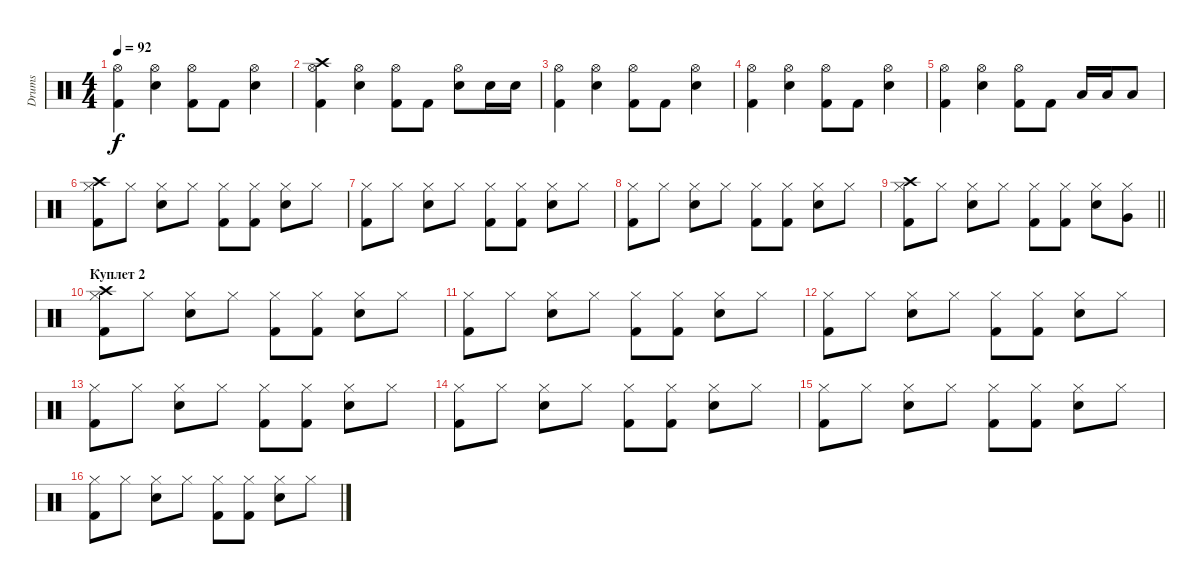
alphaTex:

\track ("Drums" "Drums") {instrument percussion}
\staff {score}
\articulation defaults
\ts (4 4)
\tempo 92
\clef neutral
\ks c
("Kick (hit) 2" "Hi-Hat (open)").4{dy f} ("Electric Snare (hit)" "Hi-Hat (open)").4 ("Kick (hit) 2" "Hi-Hat (open)").8 "Kick (hit) 2".8 ("Electric Snare (hit)" "Hi-Hat (open)").4 |
("Kick (hit) 2" "Hi-Hat (open)" "Crash high (hit)").4 ("Electric Snare (hit)" "Hi-Hat (open)").4 ("Kick (hit) 2" "Hi-Hat (open)").8 "Kick (hit) 2".8 ("Electric Snare (hit)" "Hi-Hat (open)").8 "Electric Snare (hit)".16 "Electric Snare (hit)".16 |
("Kick (hit) 2" "Hi-Hat (open)").4 ("Electric Snare (hit)" "Hi-Hat (open)").4 ("Kick (hit) 2" "Hi-Hat (open)").8 "Kick (hit) 2".8 ("Electric Snare (hit)" "Hi-Hat (open)").4 |
("Kick (hit) 2" "Hi-Hat (open)").4 ("Electric Snare (hit)" "Hi-Hat (open)").4 ("Kick (hit) 2" "Hi-Hat (open)").8 "Kick (hit) 2".8 ("Electric Snare (hit)" "Hi-Hat (open)").4 |
("Kick (hit) 2" "Hi-Hat (open)").4 ("Electric Snare (hit)" "Hi-Hat (open)").4 ("Kick (hit) 2" "Hi-Hat (open)").8 "Kick (hit) 2".8 "Low Floor Tom (hit)".16 "Low Floor Tom (hit)".16 "Low Floor Tom (hit)".8 |
("Kick (hit) 2" "Hi-Hat (closed)" "Crash high (hit)").8 "Hi-Hat (closed)".8 ("Electric Snare (hit)" "Hi-Hat (closed)").8 "Hi-Hat (closed)".8 ("Kick (hit) 2" "Hi-Hat (closed)").8 ("Kick (hit) 2" "Hi-Hat (closed)").8 ("Electric Snare (hit)" "Hi-Hat (closed)").8 "Hi-Hat (closed)".8 |
("Kick (hit) 2" "Hi-Hat (closed)").8 "Hi-Hat (closed)".8 ("Electric Snare (hit)" "Hi-Hat (closed)").8 "Hi-Hat (closed)".8 ("Kick (hit) 2" "Hi-Hat (closed)").8 ("Kick (hit) 2" "Hi-Hat (closed)").8 ("Electric Snare (hit)" "Hi-Hat (closed)").8 "Hi-Hat (closed)".8 |
("Kick (hit) 2" "Hi-Hat (closed)").8 "Hi-Hat (closed)".8 ("Electric Snare (hit)" "Hi-Hat (closed)").8 "Hi-Hat (closed)".8 ("Kick (hit) 2" "Hi-Hat (closed)").8 ("Kick (hit) 2" "Hi-Hat (closed)").8 ("Electric Snare (hit)" "Hi-Hat (closed)").8 "Hi-Hat (closed)".8 |
\barLineRight lightlight
("Kick (hit) 2" "Hi-Hat (closed)" "Crash high (hit)").8 "Hi-Hat (closed)".8 ("Electric Snare (hit)" "Hi-Hat (closed)").8 "Hi-Hat (closed)".8 ("Kick (hit) 2" "Hi-Hat (closed)").8 ("Kick (hit) 2" "Hi-Hat (closed)").8 ("Electric Snare (hit)" "Hi-Hat (closed)").8 ("Hi-Hat (closed)" "Very Low Tom (hit)").8 |
\section ("" "Куплет 2")
("Kick (hit) 2" "Hi-Hat (closed)" "Crash high (hit)").8 "Hi-Hat (closed)".8 ("Electric Snare (hit)" "Hi-Hat (closed)").8 "Hi-Hat (closed)".8 ("Kick (hit) 2" "Hi-Hat (closed)").8 ("Kick (hit) 2" "Hi-Hat (closed)").8 ("Electric Snare (hit)" "Hi-Hat (closed)").8 "Hi-Hat (closed)".8 |
("Kick (hit) 2" "Hi-Hat (closed)").8 "Hi-Hat (closed)".8 ("Electric Snare (hit)" "Hi-Hat (closed)").8 "Hi-Hat (closed)".8 ("Kick (hit) 2" "Hi-Hat (closed)").8 ("Kick (hit) 2" "Hi-Hat (closed)").8 ("Electric Snare (hit)" "Hi-Hat (closed)").8 "Hi-Hat (closed)".8 |
("Kick (hit) 2" "Hi-Hat (closed)").8 "Hi-Hat (closed)".8 ("Electric Snare (hit)" "Hi-Hat (closed)").8 "Hi-Hat (closed)".8 ("Kick (hit) 2" "Hi-Hat (closed)").8 ("Kick (hit) 2" "Hi-Hat (closed)").8 ("Electric Snare (hit)" "Hi-Hat (closed)").8 "Hi-Hat (closed)".8 |
("Kick (hit) 2" "Hi-Hat (closed)").8 "Hi-Hat (closed)".8 ("Electric Snare (hit)" "Hi-Hat (closed)").8 "Hi-Hat (closed)".8 ("Kick (hit) 2" "Hi-Hat (closed)").8 ("Kick (hit) 2" "Hi-Hat (closed)").8 ("Electric Snare (hit)" "Hi-Hat (closed)").8 "Hi-Hat (closed)".8 |
("Kick (hit) 2" "Hi-Hat (closed)").8 "Hi-Hat (closed)".8 ("Electric Snare (hit)" "Hi-Hat (closed)").8 "Hi-Hat (closed)".8 ("Kick (hit) 2" "Hi-Hat (closed)").8 ("Kick (hit) 2" "Hi-Hat (closed)").8 ("Electric Snare (hit)" "Hi-Hat (closed)").8 "Hi-Hat (closed)".8 |
("Kick (hit) 2" "Hi-Hat (closed)").8 "Hi-Hat (closed)".8 ("Electric Snare (hit)" "Hi-Hat (closed)").8 "Hi-Hat (closed)".8 ("Kick (hit) 2" "Hi-Hat (closed)").8 ("Kick (hit) 2" "Hi-Hat (closed)").8 ("Electric Snare (hit)" "Hi-Hat (closed)").8 "Hi-Hat (closed)".8 |
("Kick (hit) 2" "Hi-Hat (closed)").8 "Hi-Hat (closed)".8 ("Electric Snare (hit)" "Hi-Hat (closed)").8 "Hi-Hat (closed)".8 ("Kick (hit) 2" "Hi-Hat (closed)").8 ("Kick (hit) 2" "Hi-Hat (closed)").8 ("Electric Snare (hit)" "Hi-Hat (closed)").8 "Hi-Hat (closed)".8
